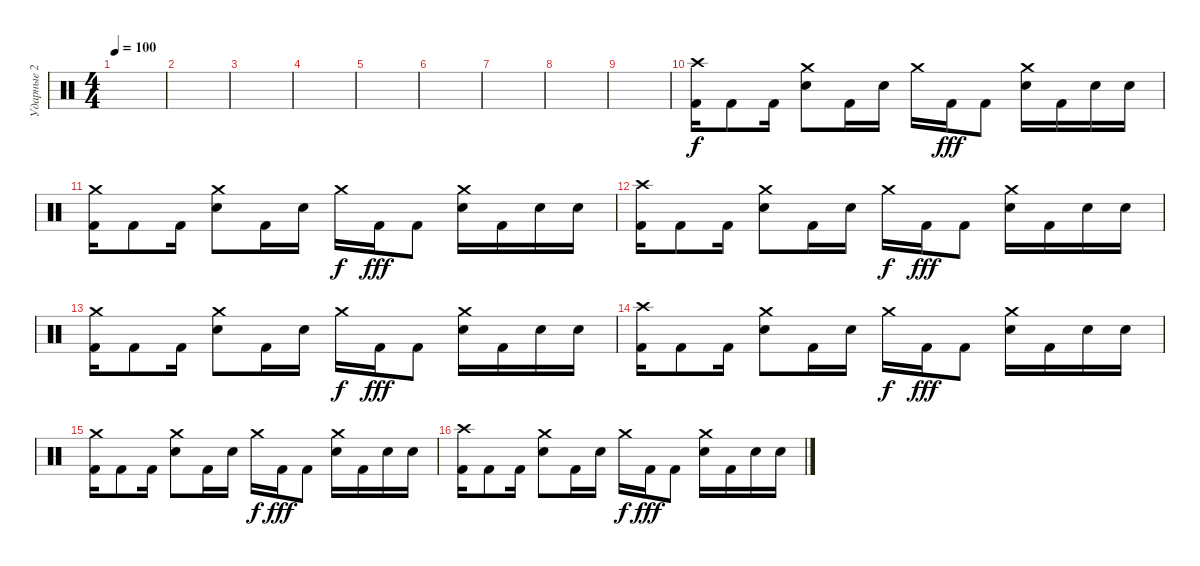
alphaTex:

\track ("Ударные 2" "Ударные 2") {instrument percussion}
\staff {score}
\articulation defaults
\ts (4 4)
\tempo 100
\clef neutral
\ks c
|
|
|
|
|
|
|
|
|
("Kick (hit) 2" "Crash high (hit)").16 "Kick (hit) 2".8 "Kick (hit) 2".16 ("Snare (hit) 2" "Crash medium (hit)").8 "Kick (hit) 2".16 "Snare (hit) 2".16 "Crash medium (hit)".16{dy f} "Kick (hit) 2".16{dy fff} "Kick (hit) 2".8 ("Snare (hit) 2" "Crash medium (hit)").16 "Kick (hit) 2".16 "Snare (hit) 2".16 "Snare (hit) 2".16 |
("Kick (hit) 2" "Crash medium (hit)").16 "Kick (hit) 2".8 "Kick (hit) 2".16 ("Snare (hit) 2" "Crash medium (hit)").8 "Kick (hit) 2".16 "Snare (hit) 2".16 "Crash medium (hit)".16{dy f} "Kick (hit) 2".16{dy fff} "Kick (hit) 2".8 ("Snare (hit) 2" "Crash medium (hit)").16 "Kick (hit) 2".16 "Snare (hit) 2".16 "Snare (hit) 2".16 |
("Kick (hit) 2" "Crash high (hit)").16 "Kick (hit) 2".8 "Kick (hit) 2".16 ("Snare (hit) 2" "Crash medium (hit)").8 "Kick (hit) 2".16 "Snare (hit) 2".16 "Crash medium (hit)".16{dy f} "Kick (hit) 2".16{dy fff} "Kick (hit) 2".8 ("Snare (hit) 2" "Crash medium (hit)").16 "Kick (hit) 2".16 "Snare (hit) 2".16 "Snare (hit) 2".16 |
("Kick (hit) 2" "Crash medium (hit)").16 "Kick (hit) 2".8 "Kick (hit) 2".16 ("Snare (hit) 2" "Crash medium (hit)").8 "Kick (hit) 2".16 "Snare (hit) 2".16 "Crash medium (hit)".16{dy f} "Kick (hit) 2".16{dy fff} "Kick (hit) 2".8 ("Snare (hit) 2" "Crash medium (hit)").16 "Kick (hit) 2".16 "Snare (hit) 2".16 "Snare (hit) 2".16 |
("Kick (hit) 2" "Crash high (hit)").16 "Kick (hit) 2".8 "Kick (hit) 2".16 ("Snare (hit) 2" "Crash medium (hit)").8 "Kick (hit) 2".16 "Snare (hit) 2".16 "Crash medium (hit)".16{dy f} "Kick (hit) 2".16{dy fff} "Kick (hit) 2".8 ("Snare (hit) 2" "Crash medium (hit)").16 "Kick (hit) 2".16 "Snare (hit) 2".16 "Snare (hit) 2".16 |
("Kick (hit) 2" "Crash medium (hit)").16 "Kick (hit) 2".8 "Kick (hit) 2".16 ("Snare (hit) 2" "Crash medium (hit)").8 "Kick (hit) 2".16 "Snare (hit) 2".16 "Crash medium (hit)".16{dy f} "Kick (hit) 2".16{dy fff} "Kick (hit) 2".8 ("Snare (hit) 2" "Crash medium (hit)").16 "Kick (hit) 2".16 "Snare (hit) 2".16 "Snare (hit) 2".16 |
("Kick (hit) 2" "Crash high (hit)").16 "Kick (hit) 2".8 "Kick (hit) 2".16 ("Snare (hit) 2" "Crash medium (hit)").8 "Kick (hit) 2".16 "Snare (hit) 2".16 "Crash medium (hit)".16{dy f} "Kick (hit) 2".16{dy fff} "Kick (hit) 2".8 ("Snare (hit) 2" "Crash medium (hit)").16 "Kick (hit) 2".16 "Snare (hit) 2".16 "Snare (hit) 2".16
